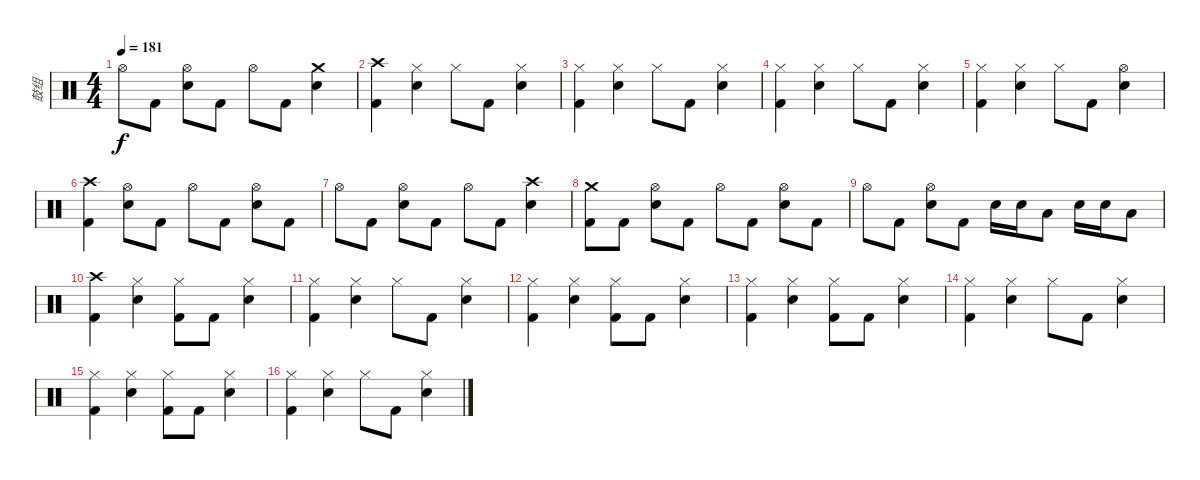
\track ("鼓组" "鼓组") {instrument percussion}
\staff {score}
\articulation defaults
\ts (4 4)
\tempo 181
\clef neutral
\ks c "Hi-Hat (open)".8{dy f} "Kick (hit) 2".8
("Hi-Hat (open)" "Snare (hit) 2").8 "Kick (hit) 2".8 "Hi-Hat (open)".8 "Kick (hit) 2".8 ("Crash medium (hit)" "Snare (hit) 2").4 |
("Crash high (hit)" "Kick (hit) 2").4 ("Hi-Hat (closed)" "Snare (hit) 2").4 "Hi-Hat (closed)".8 "Kick (hit) 2".8 ("Hi-Hat (closed)" "Snare (hit) 2").4 |
("Hi-Hat (closed)" "Kick (hit) 2").4 ("Hi-Hat (closed)" "Snare (hit) 2").4 "Hi-Hat (closed)".8 "Kick (hit) 2".8 ("Hi-Hat (closed)" "Snare (hit) 2").4 |
("Hi-Hat (closed)" "Kick (hit) 2").4 ("Hi-Hat (closed)" "Snare (hit) 2").4 "Hi-Hat (closed)".8 "Kick (hit) 2".8 ("Hi-Hat (closed)" "Snare (hit) 2").4 |
("Hi-Hat (closed)" "Kick (hit) 2").4 ("Hi-Hat (closed)" "Snare (hit) 2").4 "Hi-Hat (closed)".8 "Kick (hit) 2".8 ("Hi-Hat (open)" "Snare (hit) 2").4 |
("Crash high (hit)" "Kick (hit) 2").4 ("Hi-Hat (open)" "Snare (hit) 2").8 "Kick (hit) 2".8 "Hi-Hat (open)".8 "Kick (hit) 2".8 ("Hi-Hat (open)" "Snare (hit) 2").8 "Kick (hit) 2".8 |
"Hi-Hat (open)".8 "Kick (hit) 2".8 ("Hi-Hat (open)" "Snare (hit) 2").8 "Kick (hit) 2".8 "Hi-Hat (open)".8 "Kick (hit) 2".8 ("Crash high (hit)" "Snare (hit) 2").4 |
("Crash medium (hit)" "Kick (hit) 2").8 "Kick (hit) 2".8 ("Hi-Hat (open)" "Snare (hit) 2").8 "Kick (hit) 2".8 "Hi-Hat (open)".8 "Kick (hit) 2".8 ("Hi-Hat (open)" "Snare (hit) 2").8 "Kick (hit) 2".8 |
"Hi-Hat (open)".8 "Kick (hit) 2".8 ("Hi-Hat (open)" "Snare (hit) 2").8 "Kick (hit) 2".8 "Snare (hit) 2".16 "Snare (hit) 2".16 "Low Tom (hit)".8 "Snare (hit) 2".16 "Snare (hit) 2".16 "Low Floor Tom (hit)".8 |
("Crash high (hit)" "Kick (hit) 2").4 ("Hi-Hat (closed)" "Snare (hit) 2").4 ("Hi-Hat (closed)" "Kick (hit) 2").8 "Kick (hit) 2".8 ("Hi-Hat (closed)" "Snare (hit) 2").4 |
("Hi-Hat (closed)" "Kick (hit) 2").4 ("Hi-Hat (closed)" "Snare (hit) 2").4 "Hi-Hat (closed)".8 "Kick (hit) 2".8 ("Hi-Hat (closed)" "Snare (hit) 2").4 |
("Hi-Hat (closed)" "Kick (hit) 2").4 ("Hi-Hat (closed)" "Snare (hit) 2").4 ("Hi-Hat (closed)" "Kick (hit) 2").8 "Kick (hit) 2".8 ("Hi-Hat (closed)" "Snare (hit) 2").4 |
("Hi-Hat (closed)" "Kick (hit) 2").4 ("Hi-Hat (closed)" "Snare (hit) 2").4 ("Hi-Hat (closed)" "Kick (hit) 2").8 "Kick (hit) 2".8 ("Hi-Hat (closed)" "Snare (hit) 2").4 |
("Hi-Hat (closed)" "Kick (hit) 2").4 ("Hi-Hat (closed)" "Snare (hit) 2").4 "Hi-Hat (closed)".8 "Kick (hit) 2".8 ("Hi-Hat (closed)" "Snare (hit) 2").4 |
("Hi-Hat (closed)" "Kick (hit) 2").4 ("Hi-Hat (closed)" "Snare (hit) 2").4 ("Hi-Hat (closed)" "Kick (hit) 2").8 "Kick (hit) 2".8 ("Hi-Hat (closed)" "Snare (hit) 2").4 |
("Hi-Hat (closed)" "Kick (hit) 2").4 ("Hi-Hat (closed)" "Snare (hit) 2").4 "Hi-Hat (closed)".8 "Kick (hit) 2".8 ("Hi-Hat (closed)" "Snare (hit) 2").4
